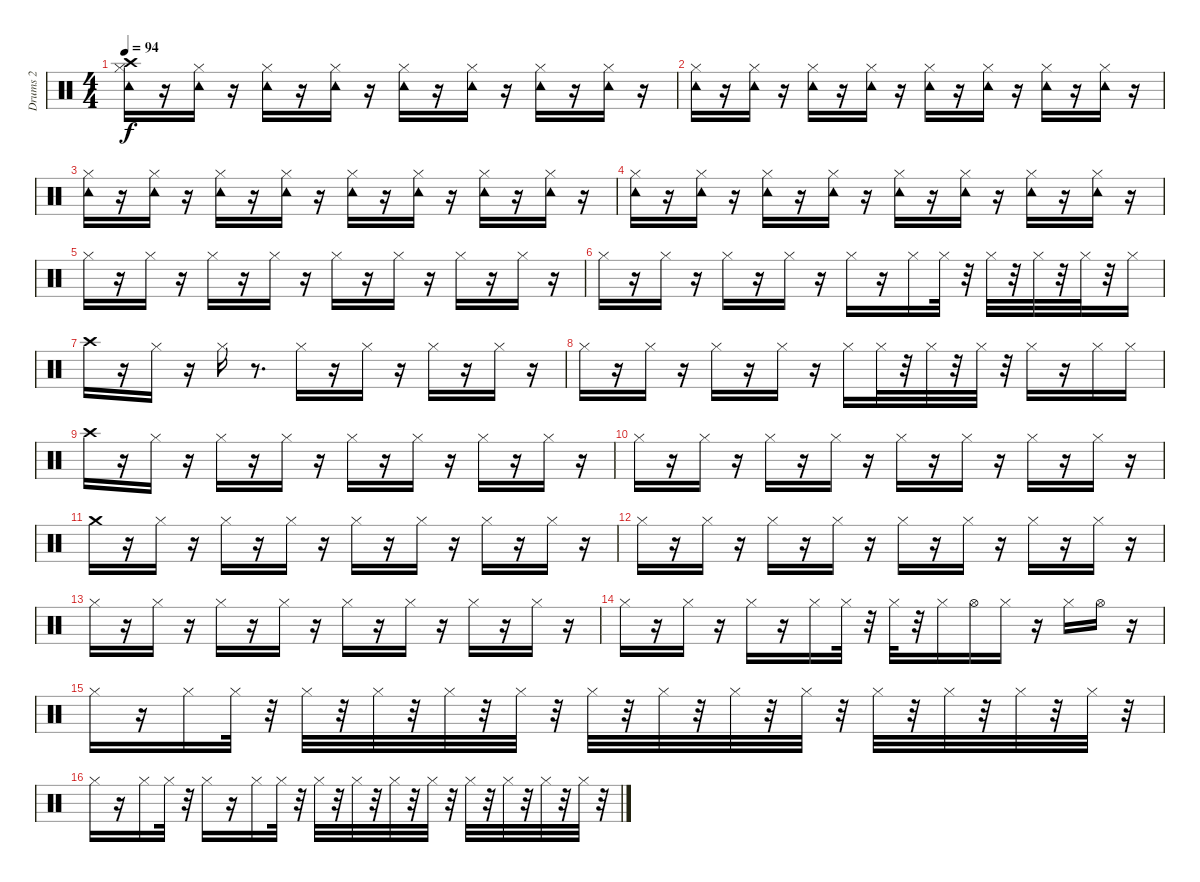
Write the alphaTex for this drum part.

\track ("Drums 2" "Drums 2") {instrument percussion}
\staff {score}
\articulation defaults
\ts (4 4)
\tempo 94
\clef neutral
\ks c
("Crash high (hit)" "Tambourine (hit)" "Hi-Hat (closed)").16{dy f} r.16 ("Hi-Hat (closed)" "Tambourine (hit)").16 r.16 ("Hi-Hat (closed)" "Tambourine (hit)").16 r.16 ("Tambourine (hit)" "Hi-Hat (closed)").16 r.16 ("Tambourine (hit)" "Hi-Hat (closed)").16 r.16 ("Tambourine (hit)" "Hi-Hat (closed)").16 r.16 ("Tambourine (hit)" "Hi-Hat (closed)").16 r.16 ("Tambourine (hit)" "Hi-Hat (closed)").16 r.16 |
("Tambourine (hit)" "Hi-Hat (closed)").16 r.16 ("Hi-Hat (closed)" "Tambourine (hit)").16 r.16 ("Tambourine (hit)" "Hi-Hat (closed)").16 r.16 ("Hi-Hat (closed)" "Tambourine (hit)").16 r.16 ("Tambourine (hit)" "Hi-Hat (closed)").16 r.16 ("Hi-Hat (closed)" "Tambourine (hit)").16 r.16 ("Hi-Hat (closed)" "Tambourine (hit)").16 r.16 ("Tambourine (hit)" "Hi-Hat (closed)").16 r.16 |
("Tambourine (hit)" "Hi-Hat (closed)").16 r.16 ("Hi-Hat (closed)" "Tambourine (hit)").16 r.16 ("Tambourine (hit)" "Hi-Hat (closed)").16 r.16 ("Tambourine (hit)" "Hi-Hat (closed)").16 r.16 ("Tambourine (hit)" "Hi-Hat (closed)").16 r.16 ("Hi-Hat (closed)" "Tambourine (hit)").16 r.16 ("Hi-Hat (closed)" "Tambourine (hit)").16 r.16 ("Hi-Hat (closed)" "Tambourine (hit)").16 r.16 |
("Tambourine (hit)" "Hi-Hat (closed)").16 r.16 ("Hi-Hat (closed)" "Tambourine (hit)").16 r.16 ("Tambourine (hit)" "Hi-Hat (closed)").16 r.16 ("Hi-Hat (closed)" "Tambourine (hit)").16 r.16 ("Hi-Hat (closed)" "Tambourine (hit)").16 r.16 ("Hi-Hat (closed)" "Tambourine (hit)").16 r.16 ("Tambourine (hit)" "Hi-Hat (closed)").16 r.16 ("Hi-Hat (closed)" "Tambourine (hit)").16 r.16 |
"Hi-Hat (closed)".16 r.16 "Hi-Hat (closed)".16 r.16 "Hi-Hat (closed)".16 r.16 "Hi-Hat (closed)".16 r.16 "Hi-Hat (closed)".16 r.16 "Hi-Hat (closed)".16 r.16 "Hi-Hat (closed)".16 r.16 "Hi-Hat (closed)".16 r.16 |
"Hi-Hat (closed)".16 r.16 "Hi-Hat (closed)".16 r.16 "Hi-Hat (closed)".16 r.16 "Hi-Hat (closed)".16 r.16 "Hi-Hat (closed)".16 r.16 "Hi-Hat (closed)".16 "Hi-Hat (closed)".32 r.32 "Hi-Hat (closed)".32 r.32 "Hi-Hat (closed)".32 r.32 "Hi-Hat (closed)".32 r.32 "Hi-Hat (closed)".16 |
"Crash high (hit)".16 r.16 "Hi-Hat (closed)".16 r.16 "Hi-Hat (closed)".16 r.8{d} "Hi-Hat (closed)".16 r.16 "Hi-Hat (closed)".16 r.16 "Hi-Hat (closed)".16 r.16 "Hi-Hat (closed)".16 r.16 |
"Hi-Hat (closed)".16 r.16 "Hi-Hat (closed)".16 r.16 "Hi-Hat (closed)".16 r.16 "Hi-Hat (closed)".16 r.16 "Hi-Hat (closed)".16 "Hi-Hat (closed)".32 r.32 "Hi-Hat (closed)".32 r.32 "Hi-Hat (closed)".32 r.32 "Hi-Hat (closed)".16 r.16 "Hi-Hat (closed)".16 "Hi-Hat (closed)".16 |
"Crash high (hit)".16 r.16 "Hi-Hat (closed)".16 r.16 "Hi-Hat (closed)".16 r.16 "Hi-Hat (closed)".16 r.16 "Hi-Hat (closed)".16 r.16 "Hi-Hat (closed)".16 r.16 "Hi-Hat (closed)".16 r.16 "Hi-Hat (closed)".16 r.16 |
"Hi-Hat (closed)".16 r.16 "Hi-Hat (closed)".16 r.16 "Hi-Hat (closed)".16 r.16 "Hi-Hat (closed)".16 r.16 "Hi-Hat (closed)".16 r.16 "Hi-Hat (closed)".16 r.16 "Hi-Hat (closed)".16 r.16 "Hi-Hat (closed)".16 r.16 |
"Crash medium (hit)".16 r.16 "Hi-Hat (closed)".16 r.16 "Hi-Hat (closed)".16 r.16 "Hi-Hat (closed)".16 r.16 "Hi-Hat (closed)".16 r.16 "Hi-Hat (closed)".16 r.16 "Hi-Hat (closed)".16 r.16 "Hi-Hat (closed)".16 r.16 |
"Hi-Hat (closed)".16 r.16 "Hi-Hat (closed)".16 r.16 "Hi-Hat (closed)".16 r.16 "Hi-Hat (closed)".16 r.16 "Hi-Hat (closed)".16 r.16 "Hi-Hat (closed)".16 r.16 "Hi-Hat (closed)".16 r.16 "Hi-Hat (closed)".16 r.16 |
"Hi-Hat (closed)".16 r.16 "Hi-Hat (closed)".16 r.16 "Hi-Hat (closed)".16 r.16 "Hi-Hat (closed)".16 r.16 "Hi-Hat (closed)".16 r.16 "Hi-Hat (closed)".16 r.16 "Hi-Hat (closed)".16 r.16 "Hi-Hat (closed)".16 r.16 |
"Hi-Hat (closed)".16 r.16 "Hi-Hat (closed)".16 r.16 "Hi-Hat (closed)".16 r.16 "Hi-Hat (closed)".16 "Hi-Hat (closed)".32 r.32 "Hi-Hat (closed)".32 r.32 "Hi-Hat (closed)".16 "Hi-Hat (open)".16 "Hi-Hat (closed)".16 r.16 "Hi-Hat (closed)".16 "Hi-Hat (open)".16 r.16 |
"Hi-Hat (closed)".16 r.16 "Hi-Hat (closed)".16 "Hi-Hat (closed)".32 r.32 "Hi-Hat (closed)".32 r.32 "Hi-Hat (closed)".32 r.32 "Hi-Hat (closed)".32 r.32 "Hi-Hat (closed)".32 r.32 "Hi-Hat (closed)".32 r.32 "Hi-Hat (closed)".32 r.32 "Hi-Hat (closed)".32 r.32 "Hi-Hat (closed)".32 r.32 "Hi-Hat (closed)".32 r.32 "Hi-Hat (closed)".32 r.32 "Hi-Hat (closed)".32 r.32 "Hi-Hat (closed)".32 r.32 |
"Hi-Hat (closed)".16 r.16 "Hi-Hat (closed)".16 "Hi-Hat (closed)".32 r.32 "Hi-Hat (closed)".16 r.16 "Hi-Hat (closed)".16 "Hi-Hat (closed)".32 r.32 "Hi-Hat (closed)".32 r.32 "Hi-Hat (closed)".32 r.32 "Hi-Hat (closed)".32 r.32 "Hi-Hat (closed)".32 r.32 "Hi-Hat (closed)".32 r.32 "Hi-Hat (closed)".32 r.32 "Hi-Hat (closed)".32 r.32 "Hi-Hat (closed)".32 r.32
